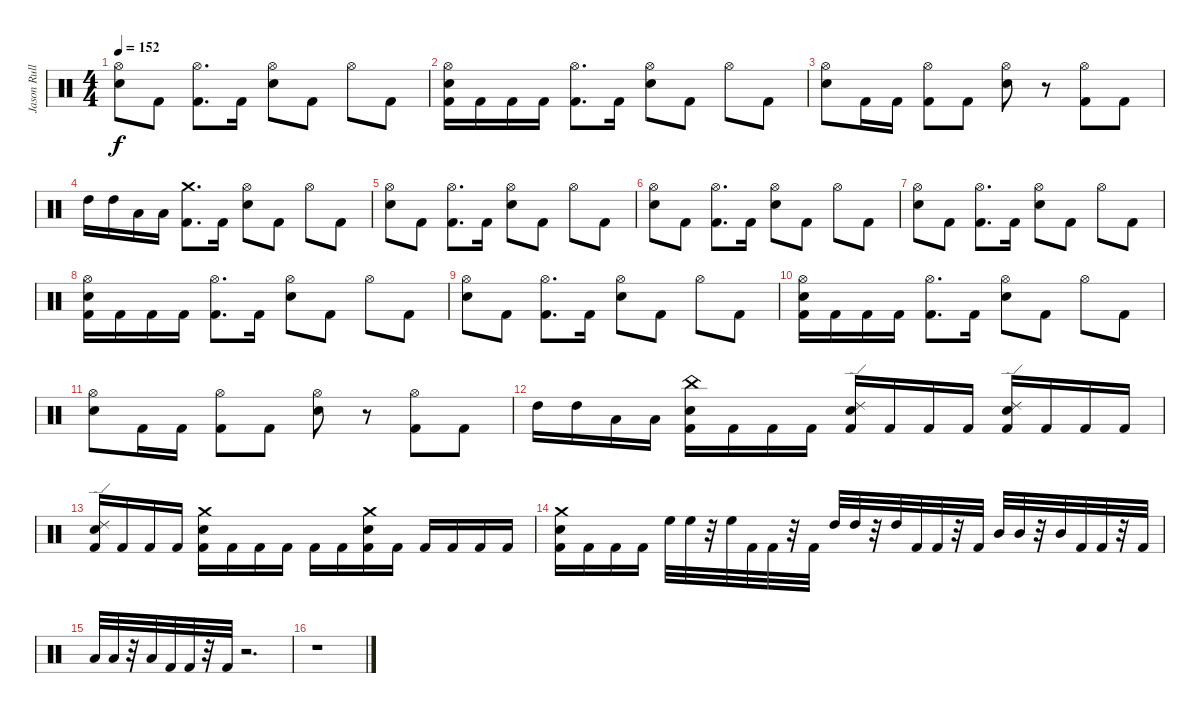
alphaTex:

\track ("Jason Rullo" "Jason Rull") {instrument percussion}
\staff {score}
\articulation defaults
\ts (4 4)
\tempo 152
\clef neutral
\ks c
("Hi-Hat (open)" "Electric Snare (hit)").8{dy f} "Kick (hit) 2".8 ("Hi-Hat (open)" "Kick (hit) 2").8{d} "Kick (hit) 2".16 ("Hi-Hat (open)" "Electric Snare (hit)").8 "Kick (hit) 2".8 "Hi-Hat (open)".8 "Kick (hit) 2".8 |
("Kick (hit) 2" "Hi-Hat (open)" "Electric Snare (hit)").16 "Kick (hit) 2".16 "Kick (hit) 2".16 "Kick (hit) 2".16 ("Hi-Hat (open)" "Kick (hit) 2").8{d} "Kick (hit) 2".16 ("Hi-Hat (open)" "Electric Snare (hit)").8 "Kick (hit) 2".8 "Hi-Hat (open)".8 "Kick (hit) 2".8 |
("Hi-Hat (open)" "Electric Snare (hit)").8 "Kick (hit) 2".16 "Kick (hit) 2".16 ("Kick (hit) 2" "Hi-Hat (open)").8 "Kick (hit) 2".8 ("Electric Snare (hit)" "Hi-Hat (open)").8 r.8 ("Kick (hit) 2" "Hi-Hat (open)").8 "Kick (hit) 2".8 |
"High Tom (hit)".16 "High Tom (hit)".16 "Low Tom (hit)".16 "Low Tom (hit)".16 ("Crash medium (hit)" "Kick (hit) 2").8{d} "Kick (hit) 2".16 ("Hi-Hat (open)" "Electric Snare (hit)").8 "Kick (hit) 2".8 "Hi-Hat (open)".8 "Kick (hit) 2".8 |
("Hi-Hat (open)" "Electric Snare (hit)").8 "Kick (hit) 2".8 ("Hi-Hat (open)" "Kick (hit) 2").8{d} "Kick (hit) 2".16 ("Hi-Hat (open)" "Electric Snare (hit)").8 "Kick (hit) 2".8 "Hi-Hat (open)".8 "Kick (hit) 2".8 |
("Hi-Hat (open)" "Electric Snare (hit)").8 "Kick (hit) 2".8 ("Hi-Hat (open)" "Kick (hit) 2").8{d} "Kick (hit) 2".16 ("Hi-Hat (open)" "Electric Snare (hit)").8 "Kick (hit) 2".8 "Hi-Hat (open)".8 "Kick (hit) 2".8 |
("Hi-Hat (open)" "Electric Snare (hit)").8 "Kick (hit) 2".8 ("Hi-Hat (open)" "Kick (hit) 2").8{d} "Kick (hit) 2".16 ("Hi-Hat (open)" "Electric Snare (hit)").8 "Kick (hit) 2".8 "Hi-Hat (open)".8 "Kick (hit) 2".8 |
("Kick (hit) 2" "Hi-Hat (open)" "Electric Snare (hit)").16 "Kick (hit) 2".16 "Kick (hit) 2".16 "Kick (hit) 2".16 ("Hi-Hat (open)" "Kick (hit) 2").8{d} "Kick (hit) 2".16 ("Hi-Hat (open)" "Electric Snare (hit)").8 "Kick (hit) 2".8 "Hi-Hat (open)".8 "Kick (hit) 2".8 |
("Hi-Hat (open)" "Electric Snare (hit)").8 "Kick (hit) 2".8 ("Hi-Hat (open)" "Kick (hit) 2").8{d} "Kick (hit) 2".16 ("Hi-Hat (open)" "Electric Snare (hit)").8 "Kick (hit) 2".8 "Hi-Hat (open)".8 "Kick (hit) 2".8 |
("Kick (hit) 2" "Hi-Hat (open)" "Electric Snare (hit)").16 "Kick (hit) 2".16 "Kick (hit) 2".16 "Kick (hit) 2".16 ("Hi-Hat (open)" "Kick (hit) 2").8{d} "Kick (hit) 2".16 ("Hi-Hat (open)" "Electric Snare (hit)").8 "Kick (hit) 2".8 "Hi-Hat (open)".8 "Kick (hit) 2".8 |
("Hi-Hat (open)" "Electric Snare (hit)").8 "Kick (hit) 2".16 "Kick (hit) 2".16 ("Kick (hit) 2" "Hi-Hat (open)").8 "Kick (hit) 2".8 ("Electric Snare (hit)" "Hi-Hat (open)").8 r.8 ("Kick (hit) 2" "Hi-Hat (open)").8 "Kick (hit) 2".8 |
"High Tom (hit)".16 "High Tom (hit)".16 "Low Tom (hit)".16 "Low Tom (hit)".16 ("Kick (hit) 2" "Electric Snare (hit)" "China (hit)").16 "Kick (hit) 2".16 "Kick (hit) 2".16 "Kick (hit) 2".16 ("Kick (hit) 2" "Electric Snare (hit)" "Ride (edge) 2").16 "Kick (hit) 2".16 "Kick (hit) 2".16 "Kick (hit) 2".16 ("Kick (hit) 2" "Electric Snare (hit)" "Ride (edge) 2").16 "Kick (hit) 2".16 "Kick (hit) 2".16 "Kick (hit) 2".16 |
("Kick (hit) 2" "Electric Snare (hit)" "Ride (edge) 2").16 "Kick (hit) 2".16 "Kick (hit) 2".16 "Kick (hit) 2".16 ("Crash medium (hit)" "Electric Snare (hit)" "Kick (hit) 2").16 "Kick (hit) 2".16 "Kick (hit) 2".16 "Kick (hit) 2".16 "Kick (hit) 2".16 "Kick (hit) 2".16 ("Crash medium (hit)" "Electric Snare (hit)" "Kick (hit) 2").16 "Kick (hit) 2".16 "Kick (hit) 2".16 "Kick (hit) 2".16 "Kick (hit) 2".16 "Kick (hit) 2".16 |
("Crash medium (hit)" "Electric Snare (hit)" "Kick (hit) 2").16 "Kick (hit) 2".16 "Kick (hit) 2".16 "Kick (hit) 2".16 "High Floor Tom (hit)".32 "High Floor Tom (hit)".32 r.32 "High Floor Tom (hit)".32 "Kick (hit) 2".32 "Kick (hit) 2".32 r.32 "Kick (hit) 2".32 "High Tom (hit)".32 "High Tom (hit)".32 r.32 "High Tom (hit)".32 "Kick (hit) 2".32 "Kick (hit) 2".32 r.32 "Kick (hit) 2".32 "Mid Tom (hit)".32 "Mid Tom (hit)".32 r.32 "Mid Tom (hit)".32 "Kick (hit) 2".32 "Kick (hit) 2".32 r.32 "Kick (hit) 2".32 |
"Low Tom (hit)".32 "Low Tom (hit)".32 r.32 "Low Tom (hit)".32 "Kick (hit) 2".32 "Kick (hit) 2".32 r.32 "Kick (hit) 2".32 r.2{d} |
r.1
